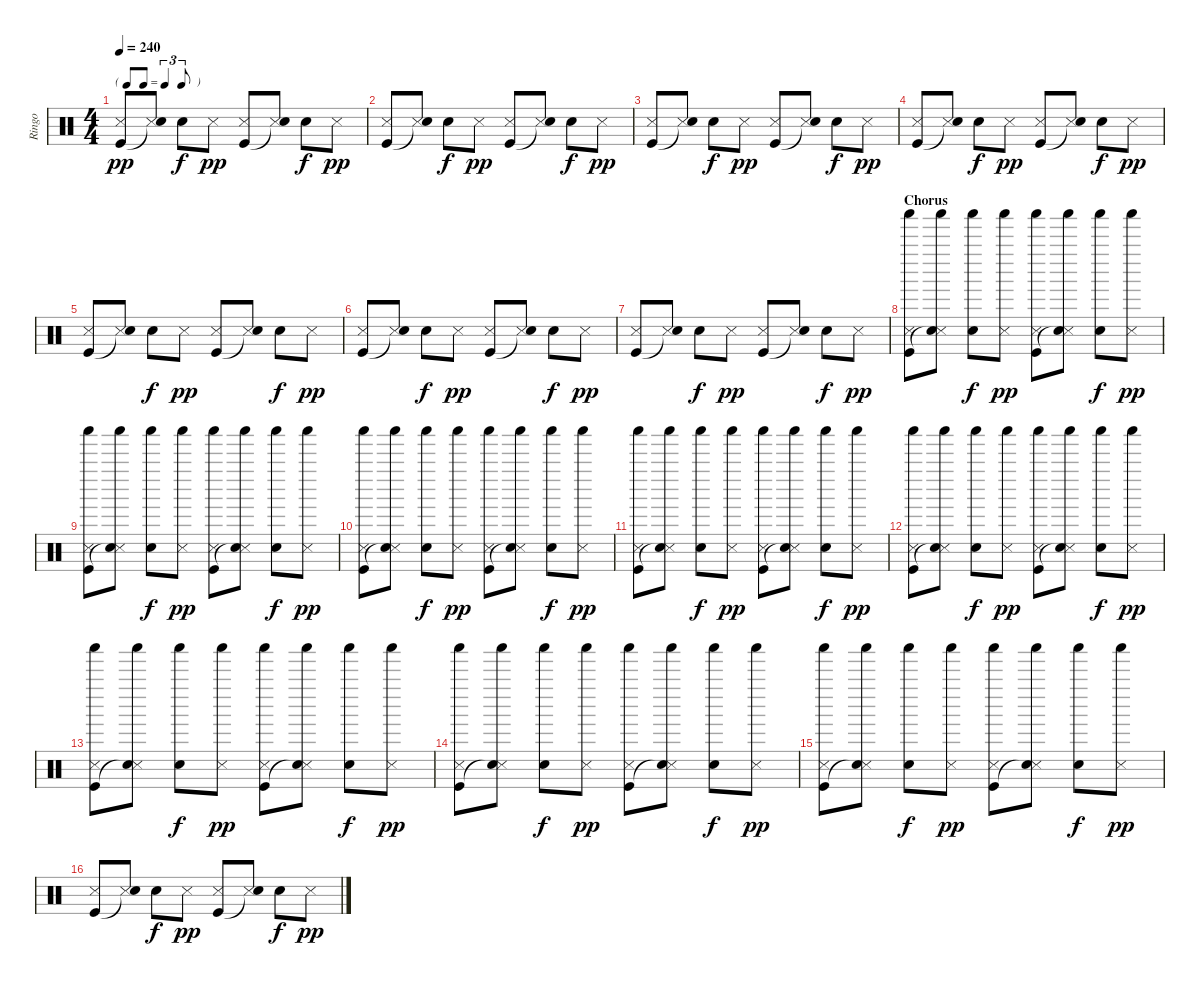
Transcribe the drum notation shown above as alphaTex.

\track ("Ringo" "Ringo") {instrument percussion}
\staff {score}
\articulation defaults
\ts (4 4)
\tf triplet8th
\tempo 240
\clef neutral
\ks c
("Snare (side stick) 3" "Kick (hit)").8{dy pp} ("Snare (side stick) 3" "Snare (hit)"{t}).8 "Snare (hit) 2".8{dy f} "Snare (side stick) 3".8{dy pp} ("Snare (side stick) 3" "Kick (hit)").8 ("Snare (side stick) 3" "Snare (hit)"{t}).8 "Snare (hit) 2".8{dy f} "Snare (side stick) 3".8{dy pp} |
("Snare (side stick) 3" "Kick (hit)").8 ("Snare (side stick) 3" "Snare (hit)"{t}).8 "Snare (hit) 2".8{dy f} "Snare (side stick) 3".8{dy pp} ("Snare (side stick) 3" "Kick (hit)").8 ("Snare (side stick) 3" "Snare (hit)"{t}).8 "Snare (hit) 2".8{dy f} "Snare (side stick) 3".8{dy pp} |
("Snare (side stick) 3" "Kick (hit)").8 ("Snare (side stick) 3" "Snare (hit)"{t}).8 "Snare (hit) 2".8{dy f} "Snare (side stick) 3".8{dy pp} ("Snare (side stick) 3" "Kick (hit)").8 ("Snare (side stick) 3" "Snare (hit)"{t}).8 "Snare (hit) 2".8{dy f} "Snare (side stick) 3".8{dy pp} |
("Snare (side stick) 3" "Kick (hit)").8 ("Snare (side stick) 3" "Snare (hit)"{t}).8 "Snare (hit) 2".8{dy f} "Snare (side stick) 3".8{dy pp} ("Snare (side stick) 3" "Kick (hit)").8 ("Snare (side stick) 3" "Snare (hit)"{t}).8 "Snare (hit) 2".8{dy f} "Snare (side stick) 3".8{dy pp} |
("Snare (side stick) 3" "Kick (hit)").8 ("Snare (side stick) 3" "Snare (hit)"{t}).8 "Snare (hit) 2".8{dy f} "Snare (side stick) 3".8{dy pp} ("Snare (side stick) 3" "Kick (hit)").8 ("Snare (side stick) 3" "Snare (hit)"{t}).8 "Snare (hit) 2".8{dy f} "Snare (side stick) 3".8{dy pp} |
("Snare (side stick) 3" "Kick (hit)").8 ("Snare (side stick) 3" "Snare (hit)"{t}).8 "Snare (hit) 2".8{dy f} "Snare (side stick) 3".8{dy pp} ("Snare (side stick) 3" "Kick (hit)").8 ("Snare (side stick) 3" "Snare (hit)"{t}).8 "Snare (hit) 2".8{dy f} "Snare (side stick) 3".8{dy pp} |
("Snare (side stick) 3" "Kick (hit)").8 ("Snare (side stick) 3" "Snare (hit)"{t}).8 "Snare (hit) 2".8{dy f} "Snare (side stick) 3".8{dy pp} ("Snare (side stick) 3" "Kick (hit)").8 ("Snare (side stick) 3" "Snare (hit)"{t}).8 "Snare (hit) 2".8{dy f} "Snare (side stick) 3".8{dy pp} |
\section ("" "Chorus")
("Shaker (hit)" "Snare (side stick) 3" "Kick (hit)").8 ("Shaker (hit)" "Snare (side stick) 3" "Snare (hit)"{t}).8 ("Shaker (hit)" "Snare (hit) 2").8{dy f} ("Shaker (hit)" "Snare (side stick) 3").8{dy pp} ("Shaker (hit)" "Snare (side stick) 3" "Kick (hit)").8 ("Shaker (hit)" "Snare (side stick) 3" "Snare (hit)"{t}).8 ("Shaker (hit)" "Snare (hit) 2").8{dy f} ("Shaker (hit)" "Snare (side stick) 3").8{dy pp} |
("Shaker (hit)" "Snare (side stick) 3" "Kick (hit)").8 ("Shaker (hit)" "Snare (side stick) 3" "Snare (hit)"{t}).8 ("Shaker (hit)" "Snare (hit) 2").8{dy f} ("Shaker (hit)" "Snare (side stick) 3").8{dy pp} ("Shaker (hit)" "Snare (side stick) 3" "Kick (hit)").8 ("Shaker (hit)" "Snare (side stick) 3" "Snare (hit)"{t}).8 ("Shaker (hit)" "Snare (hit) 2").8{dy f} ("Shaker (hit)" "Snare (side stick) 3").8{dy pp} |
("Shaker (hit)" "Snare (side stick) 3" "Kick (hit)").8 ("Shaker (hit)" "Snare (side stick) 3" "Snare (hit)"{t}).8 ("Shaker (hit)" "Snare (hit) 2").8{dy f} ("Shaker (hit)" "Snare (side stick) 3").8{dy pp} ("Shaker (hit)" "Snare (side stick) 3" "Kick (hit)").8 ("Shaker (hit)" "Snare (side stick) 3" "Snare (hit)"{t}).8 ("Shaker (hit)" "Snare (hit) 2").8{dy f} ("Shaker (hit)" "Snare (side stick) 3").8{dy pp} |
("Shaker (hit)" "Snare (side stick) 3" "Kick (hit)").8 ("Shaker (hit)" "Snare (side stick) 3" "Snare (hit)"{t}).8 ("Shaker (hit)" "Snare (hit) 2").8{dy f} ("Shaker (hit)" "Snare (side stick) 3").8{dy pp} ("Shaker (hit)" "Snare (side stick) 3" "Kick (hit)").8 ("Shaker (hit)" "Snare (side stick) 3" "Snare (hit)"{t}).8 ("Shaker (hit)" "Snare (hit) 2").8{dy f} ("Shaker (hit)" "Snare (side stick) 3").8{dy pp} |
("Shaker (hit)" "Snare (side stick) 3" "Kick (hit)").8 ("Shaker (hit)" "Snare (side stick) 3" "Snare (hit)"{t}).8 ("Shaker (hit)" "Snare (hit) 2").8{dy f} ("Shaker (hit)" "Snare (side stick) 3").8{dy pp} ("Shaker (hit)" "Snare (side stick) 3" "Kick (hit)").8 ("Shaker (hit)" "Snare (side stick) 3" "Snare (hit)"{t}).8 ("Shaker (hit)" "Snare (hit) 2").8{dy f} ("Shaker (hit)" "Snare (side stick) 3").8{dy pp} |
("Shaker (hit)" "Snare (side stick) 3" "Kick (hit)").8 ("Shaker (hit)" "Snare (side stick) 3" "Snare (hit)"{t}).8 ("Shaker (hit)" "Snare (hit) 2").8{dy f} ("Shaker (hit)" "Snare (side stick) 3").8{dy pp} ("Shaker (hit)" "Snare (side stick) 3" "Kick (hit)").8 ("Shaker (hit)" "Snare (side stick) 3" "Snare (hit)"{t}).8 ("Shaker (hit)" "Snare (hit) 2").8{dy f} ("Shaker (hit)" "Snare (side stick) 3").8{dy pp} |
("Shaker (hit)" "Snare (side stick) 3" "Kick (hit)").8 ("Shaker (hit)" "Snare (side stick) 3" "Snare (hit)"{t}).8 ("Shaker (hit)" "Snare (hit) 2").8{dy f} ("Shaker (hit)" "Snare (side stick) 3").8{dy pp} ("Shaker (hit)" "Snare (side stick) 3" "Kick (hit)").8 ("Shaker (hit)" "Snare (side stick) 3" "Snare (hit)"{t}).8 ("Shaker (hit)" "Snare (hit) 2").8{dy f} ("Shaker (hit)" "Snare (side stick) 3").8{dy pp} |
("Shaker (hit)" "Snare (side stick) 3" "Kick (hit)").8 ("Shaker (hit)" "Snare (side stick) 3" "Snare (hit)"{t}).8 ("Shaker (hit)" "Snare (hit) 2").8{dy f} ("Shaker (hit)" "Snare (side stick) 3").8{dy pp} ("Shaker (hit)" "Snare (side stick) 3" "Kick (hit)").8 ("Shaker (hit)" "Snare (side stick) 3" "Snare (hit)"{t}).8 ("Shaker (hit)" "Snare (hit) 2").8{dy f} ("Shaker (hit)" "Snare (side stick) 3").8{dy pp} |
("Snare (side stick) 3" "Kick (hit)").8 ("Snare (side stick) 3" "Snare (hit)"{t}).8 "Snare (hit) 2".8{dy f} "Snare (side stick) 3".8{dy pp} ("Snare (side stick) 3" "Kick (hit)").8 ("Snare (side stick) 3" "Snare (hit)"{t}).8 "Snare (hit) 2".8{dy f} "Snare (side stick) 3".8{dy pp}
